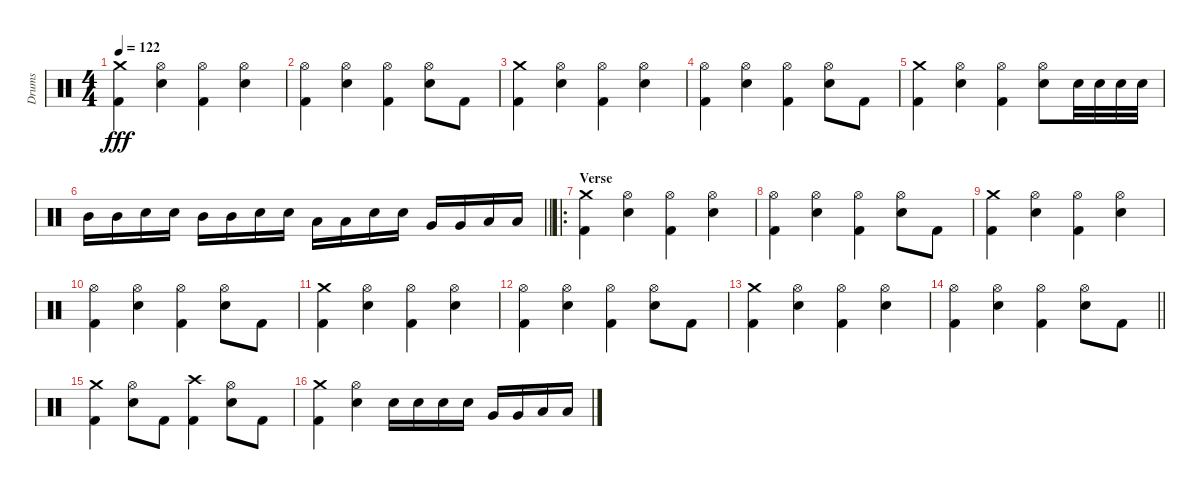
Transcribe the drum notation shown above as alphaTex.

\track ("Drums" "Drums") {instrument percussion}
\staff {score}
\articulation defaults
\ts (4 4)
\tempo 122
\clef neutral
\ks c
("Crash medium (hit)" "Kick (hit) 2").4{dy fff} ("Hi-Hat (open)" "Electric Snare (hit)").4 ("Hi-Hat (open)" "Kick (hit) 2").4 ("Hi-Hat (open)" "Electric Snare (hit)").4 |
("Hi-Hat (open)" "Kick (hit) 2").4 ("Hi-Hat (open)" "Electric Snare (hit)").4 ("Hi-Hat (open)" "Kick (hit) 2").4 ("Hi-Hat (open)" "Electric Snare (hit)").8 "Kick (hit) 2".8 |
("Crash medium (hit)" "Kick (hit) 2").4 ("Hi-Hat (open)" "Electric Snare (hit)").4 ("Hi-Hat (open)" "Kick (hit) 2").4 ("Hi-Hat (open)" "Electric Snare (hit)").4 |
("Hi-Hat (open)" "Kick (hit) 2").4 ("Hi-Hat (open)" "Electric Snare (hit)").4 ("Hi-Hat (open)" "Kick (hit) 2").4 ("Hi-Hat (open)" "Electric Snare (hit)").8 "Kick (hit) 2".8 |
("Crash medium (hit)" "Kick (hit) 2").4 ("Hi-Hat (open)" "Electric Snare (hit)").4 ("Hi-Hat (open)" "Kick (hit) 2").4 ("Hi-Hat (open)" "Electric Snare (hit)").8 "Electric Snare (hit)".32 "Electric Snare (hit)".32 "Electric Snare (hit)".32 "Electric Snare (hit)".32 |
\barLineRight lightlight "Mid Tom (hit)".16 "Mid Tom (hit)".16 "Electric Snare (hit)".16 "Electric Snare (hit)".16 "Mid Tom (hit)".16 "Mid Tom (hit)".16 "Electric Snare (hit)".16 "Electric Snare (hit)".16 "Low Tom (hit)".16 "Low Tom (hit)".16 "Electric Snare (hit)".16 "Electric Snare (hit)".16 "Very Low Tom (hit)".16 "Very Low Tom (hit)".16 "Low Floor Tom (hit)".16 "Low Floor Tom (hit)".16
|
\ro
\section ("" "Verse")
("Crash medium (hit)" "Kick (hit) 2").4 ("Hi-Hat (open)" "Electric Snare (hit)").4 ("Hi-Hat (open)" "Kick (hit) 2").4 ("Hi-Hat (open)" "Electric Snare (hit)").4 |
("Hi-Hat (open)" "Kick (hit) 2").4 ("Hi-Hat (open)" "Electric Snare (hit)").4 ("Hi-Hat (open)" "Kick (hit) 2").4 ("Hi-Hat (open)" "Electric Snare (hit)").8 "Kick (hit) 2".8 |
("Crash medium (hit)" "Kick (hit) 2").4 ("Hi-Hat (open)" "Electric Snare (hit)").4 ("Hi-Hat (open)" "Kick (hit) 2").4 ("Hi-Hat (open)" "Electric Snare (hit)").4 |
("Hi-Hat (open)" "Kick (hit) 2").4 ("Hi-Hat (open)" "Electric Snare (hit)").4 ("Hi-Hat (open)" "Kick (hit) 2").4 ("Hi-Hat (open)" "Electric Snare (hit)").8 "Kick (hit) 2".8 |
("Crash medium (hit)" "Kick (hit) 2").4 ("Hi-Hat (open)" "Electric Snare (hit)").4 ("Hi-Hat (open)" "Kick (hit) 2").4 ("Hi-Hat (open)" "Electric Snare (hit)").4 |
("Hi-Hat (open)" "Kick (hit) 2").4 ("Hi-Hat (open)" "Electric Snare (hit)").4 ("Hi-Hat (open)" "Kick (hit) 2").4 ("Hi-Hat (open)" "Electric Snare (hit)").8 "Kick (hit) 2".8 |
("Crash medium (hit)" "Kick (hit) 2").4 ("Hi-Hat (open)" "Electric Snare (hit)").4 ("Hi-Hat (open)" "Kick (hit) 2").4 ("Hi-Hat (open)" "Electric Snare (hit)").4 |
\barLineRight lightlight
("Hi-Hat (open)" "Kick (hit) 2").4 ("Hi-Hat (open)" "Electric Snare (hit)").4 ("Hi-Hat (open)" "Kick (hit) 2").4 ("Hi-Hat (open)" "Electric Snare (hit)").8 "Kick (hit) 2".8 |
\section ("" "")
("Crash medium (hit)" "Kick (hit) 2").4 ("Hi-Hat (open)" "Electric Snare (hit)").8 "Kick (hit) 2".8 ("Crash high (hit)" "Kick (hit) 2").4 ("Hi-Hat (open)" "Electric Snare (hit)").8 "Kick (hit) 2".8 |
("Crash medium (hit)" "Kick (hit) 2").4 ("Hi-Hat (open)" "Electric Snare (hit)").4 "Electric Snare (hit)".16 "Electric Snare (hit)".16 "Electric Snare (hit)".16 "Electric Snare (hit)".16 "Very Low Tom (hit)".16 "Very Low Tom (hit)".16 "Low Tom (hit)".16 "Low Tom (hit)".16
